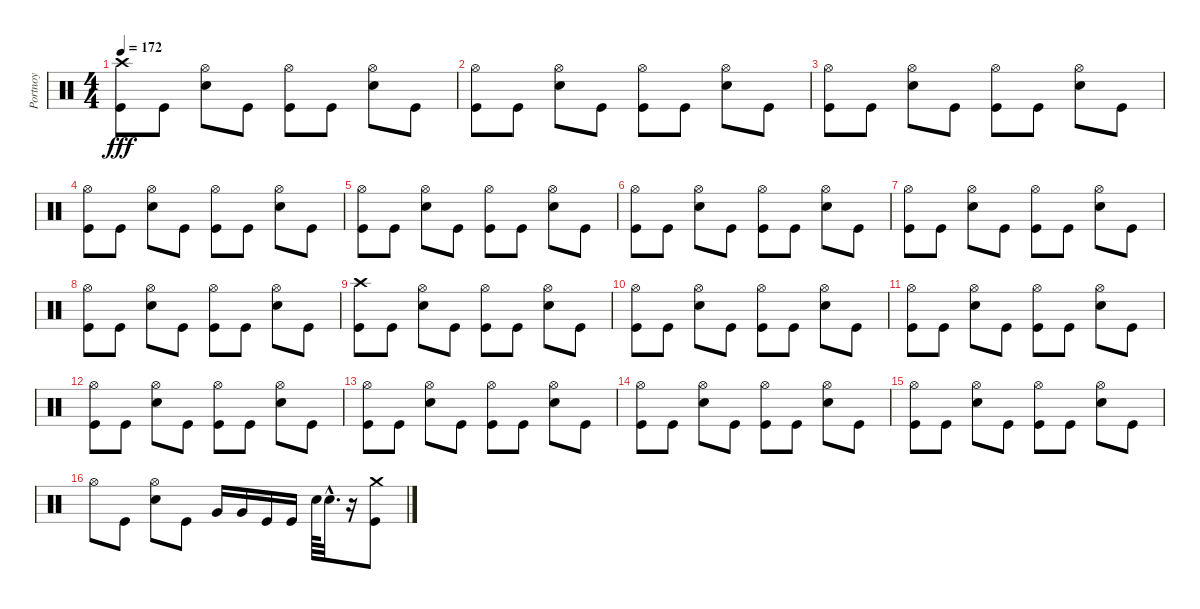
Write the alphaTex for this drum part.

\track ("Portnoy" "Portnoy") {instrument percussion}
\staff {score}
\articulation defaults
\ts (4 4)
\tempo 172
\clef neutral
\ks c
("Crash high (hit)" "Kick (hit)").8{dy fff} "Kick (hit)".8 ("Hi-Hat (open)" "Snare (hit) 2").8 "Kick (hit)".8 ("Hi-Hat (open)" "Kick (hit)").8 "Kick (hit)".8 ("Hi-Hat (open)" "Snare (hit) 2").8 "Kick (hit)".8 |
("Hi-Hat (open)" "Kick (hit)").8 "Kick (hit)".8 ("Hi-Hat (open)" "Snare (hit) 2").8 "Kick (hit)".8 ("Hi-Hat (open)" "Kick (hit)").8 "Kick (hit)".8 ("Hi-Hat (open)" "Snare (hit) 2").8 "Kick (hit)".8 |
("Hi-Hat (open)" "Kick (hit)").8 "Kick (hit)".8 ("Hi-Hat (open)" "Snare (hit) 2").8 "Kick (hit)".8 ("Hi-Hat (open)" "Kick (hit)").8 "Kick (hit)".8 ("Hi-Hat (open)" "Snare (hit) 2").8 "Kick (hit)".8 |
("Hi-Hat (open)" "Kick (hit)").8 "Kick (hit)".8 ("Hi-Hat (open)" "Snare (hit) 2").8 "Kick (hit)".8 ("Hi-Hat (open)" "Kick (hit)").8 "Kick (hit)".8 ("Hi-Hat (open)" "Snare (hit) 2").8 "Kick (hit)".8 |
("Hi-Hat (open)" "Kick (hit)").8 "Kick (hit)".8 ("Hi-Hat (open)" "Snare (hit) 2").8 "Kick (hit)".8 ("Hi-Hat (open)" "Kick (hit)").8 "Kick (hit)".8 ("Hi-Hat (open)" "Snare (hit) 2").8 "Kick (hit)".8 |
("Hi-Hat (open)" "Kick (hit)").8 "Kick (hit)".8 ("Hi-Hat (open)" "Snare (hit) 2").8 "Kick (hit)".8 ("Hi-Hat (open)" "Kick (hit)").8 "Kick (hit)".8 ("Hi-Hat (open)" "Snare (hit) 2").8 "Kick (hit)".8 |
("Hi-Hat (open)" "Kick (hit)").8 "Kick (hit)".8 ("Hi-Hat (open)" "Snare (hit) 2").8 "Kick (hit)".8 ("Hi-Hat (open)" "Kick (hit)").8 "Kick (hit)".8 ("Hi-Hat (open)" "Snare (hit) 2").8 "Kick (hit)".8 |
("Hi-Hat (open)" "Kick (hit)").8 "Kick (hit)".8 ("Hi-Hat (open)" "Snare (hit) 2").8 "Kick (hit)".8 ("Hi-Hat (open)" "Kick (hit)").8 "Kick (hit)".8 ("Hi-Hat (open)" "Snare (hit) 2").8 "Kick (hit)".8 |
("Crash high (hit)" "Kick (hit)").8 "Kick (hit)".8 ("Hi-Hat (open)" "Snare (hit) 2").8 "Kick (hit)".8 ("Hi-Hat (open)" "Kick (hit)").8 "Kick (hit)".8 ("Hi-Hat (open)" "Snare (hit) 2").8 "Kick (hit)".8 |
("Hi-Hat (open)" "Kick (hit)").8 "Kick (hit)".8 ("Hi-Hat (open)" "Snare (hit) 2").8 "Kick (hit)".8 ("Hi-Hat (open)" "Kick (hit)").8 "Kick (hit)".8 ("Hi-Hat (open)" "Snare (hit) 2").8 "Kick (hit)".8 |
("Hi-Hat (open)" "Kick (hit)").8 "Kick (hit)".8 ("Hi-Hat (open)" "Snare (hit) 2").8 "Kick (hit)".8 ("Hi-Hat (open)" "Kick (hit)").8 "Kick (hit)".8 ("Hi-Hat (open)" "Snare (hit) 2").8 "Kick (hit)".8 |
("Hi-Hat (open)" "Kick (hit)").8 "Kick (hit)".8 ("Hi-Hat (open)" "Snare (hit) 2").8 "Kick (hit)".8 ("Hi-Hat (open)" "Kick (hit)").8 "Kick (hit)".8 ("Hi-Hat (open)" "Snare (hit) 2").8 "Kick (hit)".8 |
("Hi-Hat (open)" "Kick (hit)").8 "Kick (hit)".8 ("Hi-Hat (open)" "Snare (hit) 2").8 "Kick (hit)".8 ("Hi-Hat (open)" "Kick (hit)").8 "Kick (hit)".8 ("Hi-Hat (open)" "Snare (hit) 2").8 "Kick (hit)".8 |
("Hi-Hat (open)" "Kick (hit)").8 "Kick (hit)".8 ("Hi-Hat (open)" "Snare (hit) 2").8 "Kick (hit)".8 ("Hi-Hat (open)" "Kick (hit)").8 "Kick (hit)".8 ("Hi-Hat (open)" "Snare (hit) 2").8 "Kick (hit)".8 |
("Hi-Hat (open)" "Kick (hit)").8 "Kick (hit)".8 ("Hi-Hat (open)" "Snare (hit) 2").8 "Kick (hit)".8 ("Hi-Hat (open)" "Kick (hit)").8 "Kick (hit)".8 ("Hi-Hat (open)" "Snare (hit) 2").8 "Kick (hit)".8 |
"Hi-Hat (open)".8 "Kick (hit)".8 ("Hi-Hat (open)" "Snare (hit) 2").8 "Kick (hit)".8 "Very Low Tom (hit)".16 "Very Low Tom (hit)".16 "Kick (hit)".16 "Kick (hit)".16 "Snare (hit) 2".64 "Snare (hit) 2"{hac}.32{d} r.16 ("Crash medium (hit)" "Kick (hit)").8
